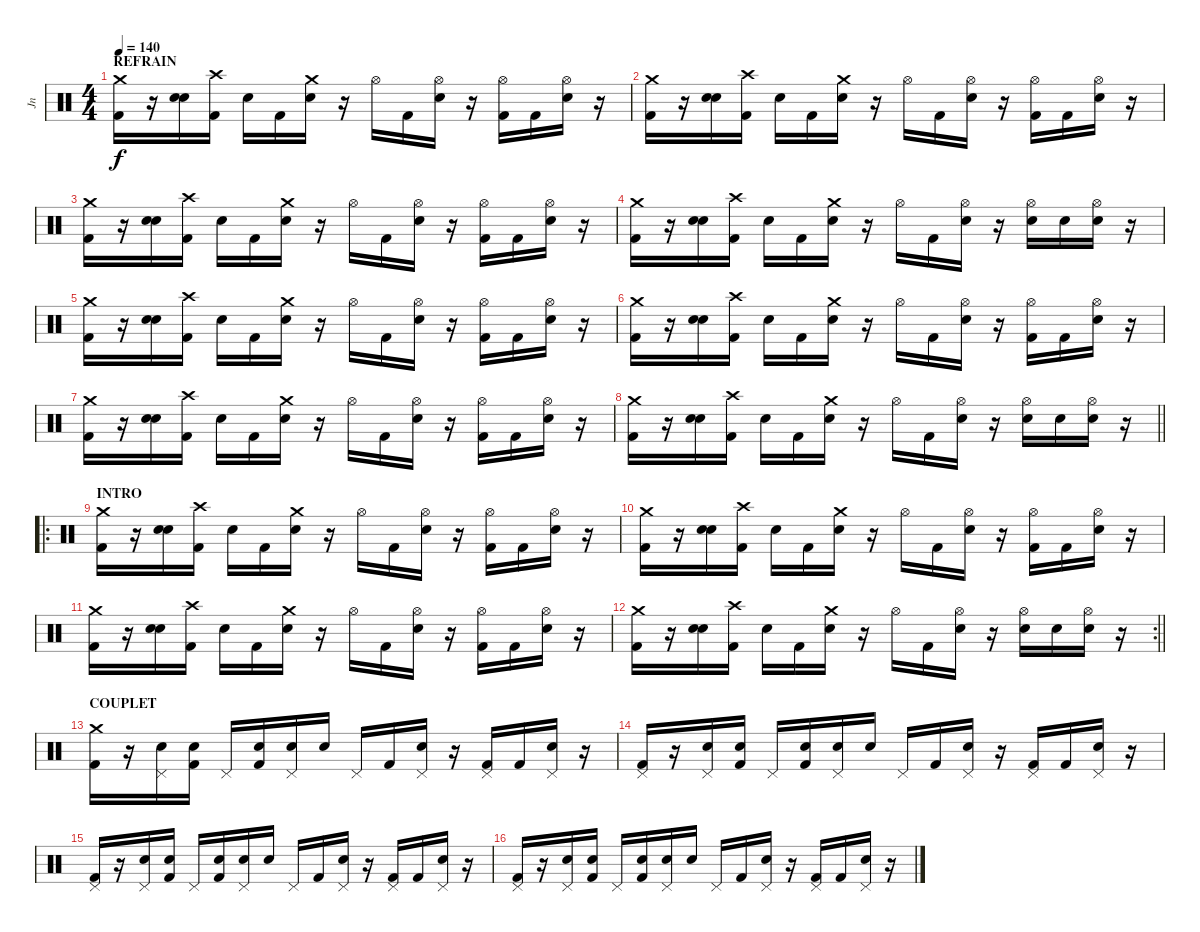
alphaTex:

\track ("Jn" "Jn") {instrument percussion}
\staff {score}
\articulation defaults
\ts (4 4)
\section ("" "REFRAIN")
\tempo 140
\clef neutral
\ks c
("Crash medium (hit)" "Kick (hit) 2").16{dy f} r.16 ("Snare (hit)" "Electric Snare (hit)").16 ("Crash high (hit)" "Kick (hit) 2").16 "Snare (hit)".16 "Kick (hit) 2".16 ("Crash medium (hit)" "Electric Snare (hit)").16 r.16 "Hi-Hat (open)".16 "Kick (hit) 2".16 ("Hi-Hat (open)" "Electric Snare (hit)").16 r.16 ("Hi-Hat (open)" "Kick (hit) 2").16 "Kick (hit) 2".16 ("Hi-Hat (open)" "Electric Snare (hit)").16 r.16 |
("Crash medium (hit)" "Kick (hit) 2").16 r.16 ("Snare (hit)" "Electric Snare (hit)").16 ("Crash high (hit)" "Kick (hit) 2").16 "Snare (hit)".16 "Kick (hit) 2".16 ("Crash medium (hit)" "Electric Snare (hit)").16 r.16 "Hi-Hat (open)".16 "Kick (hit) 2".16 ("Hi-Hat (open)" "Electric Snare (hit)").16 r.16 ("Hi-Hat (open)" "Kick (hit) 2").16 "Kick (hit) 2".16 ("Hi-Hat (open)" "Electric Snare (hit)").16 r.16 |
("Crash medium (hit)" "Kick (hit) 2").16 r.16 ("Snare (hit)" "Electric Snare (hit)").16 ("Crash high (hit)" "Kick (hit) 2").16 "Snare (hit)".16 "Kick (hit) 2".16 ("Crash medium (hit)" "Electric Snare (hit)").16 r.16 "Hi-Hat (open)".16 "Kick (hit) 2".16 ("Hi-Hat (open)" "Electric Snare (hit)").16 r.16 ("Hi-Hat (open)" "Kick (hit) 2").16 "Kick (hit) 2".16 ("Hi-Hat (open)" "Electric Snare (hit)").16 r.16 |
("Crash medium (hit)" "Kick (hit) 2").16 r.16 ("Snare (hit)" "Electric Snare (hit)").16 ("Crash high (hit)" "Kick (hit) 2").16 "Snare (hit)".16 "Kick (hit) 2".16 ("Crash medium (hit)" "Electric Snare (hit)").16 r.16 "Hi-Hat (open)".16 "Kick (hit) 2".16 ("Hi-Hat (open)" "Electric Snare (hit)").16 r.16 ("Hi-Hat (open)" "Electric Snare (hit)").16 "Electric Snare (hit)".16 ("Hi-Hat (open)" "Electric Snare (hit)").16 r.16 |
("Crash medium (hit)" "Kick (hit) 2").16 r.16 ("Snare (hit)" "Electric Snare (hit)").16 ("Crash high (hit)" "Kick (hit) 2").16 "Snare (hit)".16 "Kick (hit) 2".16 ("Crash medium (hit)" "Electric Snare (hit)").16 r.16 "Hi-Hat (open)".16 "Kick (hit) 2".16 ("Hi-Hat (open)" "Electric Snare (hit)").16 r.16 ("Hi-Hat (open)" "Kick (hit) 2").16 "Kick (hit) 2".16 ("Hi-Hat (open)" "Electric Snare (hit)").16 r.16 |
("Crash medium (hit)" "Kick (hit) 2").16 r.16 ("Snare (hit)" "Electric Snare (hit)").16 ("Crash high (hit)" "Kick (hit) 2").16 "Snare (hit)".16 "Kick (hit) 2".16 ("Crash medium (hit)" "Electric Snare (hit)").16 r.16 "Hi-Hat (open)".16 "Kick (hit) 2".16 ("Hi-Hat (open)" "Electric Snare (hit)").16 r.16 ("Hi-Hat (open)" "Kick (hit) 2").16 "Kick (hit) 2".16 ("Hi-Hat (open)" "Electric Snare (hit)").16 r.16 |
("Crash medium (hit)" "Kick (hit) 2").16 r.16 ("Snare (hit)" "Electric Snare (hit)").16 ("Crash high (hit)" "Kick (hit) 2").16 "Snare (hit)".16 "Kick (hit) 2".16 ("Crash medium (hit)" "Electric Snare (hit)").16 r.16 "Hi-Hat (open)".16 "Kick (hit) 2".16 ("Hi-Hat (open)" "Electric Snare (hit)").16 r.16 ("Hi-Hat (open)" "Kick (hit) 2").16 "Kick (hit) 2".16 ("Hi-Hat (open)" "Electric Snare (hit)").16 r.16 |
\barLineRight lightlight
("Crash medium (hit)" "Kick (hit) 2").16 r.16 ("Snare (hit)" "Electric Snare (hit)").16 ("Crash high (hit)" "Kick (hit) 2").16 "Snare (hit)".16 "Kick (hit) 2".16 ("Crash medium (hit)" "Electric Snare (hit)").16 r.16 "Hi-Hat (open)".16 "Kick (hit) 2".16 ("Hi-Hat (open)" "Electric Snare (hit)").16 r.16 ("Hi-Hat (open)" "Electric Snare (hit)").16 "Electric Snare (hit)".16 ("Hi-Hat (open)" "Electric Snare (hit)").16 r.16 |
\ro
\section ("" "INTRO")
("Crash medium (hit)" "Kick (hit) 2").16 r.16 ("Snare (hit)" "Electric Snare (hit)").16 ("Crash high (hit)" "Kick (hit) 2").16 "Snare (hit)".16 "Kick (hit) 2".16 ("Crash medium (hit)" "Electric Snare (hit)").16 r.16 "Hi-Hat (open)".16 "Kick (hit) 2".16 ("Hi-Hat (open)" "Electric Snare (hit)").16 r.16 ("Hi-Hat (open)" "Kick (hit) 2").16 "Kick (hit) 2".16 ("Hi-Hat (open)" "Electric Snare (hit)").16 r.16 |
("Crash medium (hit)" "Kick (hit) 2").16 r.16 ("Snare (hit)" "Electric Snare (hit)").16 ("Crash high (hit)" "Kick (hit) 2").16 "Snare (hit)".16 "Kick (hit) 2".16 ("Crash medium (hit)" "Electric Snare (hit)").16 r.16 "Hi-Hat (open)".16 "Kick (hit) 2".16 ("Hi-Hat (open)" "Electric Snare (hit)").16 r.16 ("Hi-Hat (open)" "Kick (hit) 2").16 "Kick (hit) 2".16 ("Hi-Hat (open)" "Electric Snare (hit)").16 r.16 |
("Crash medium (hit)" "Kick (hit) 2").16 r.16 ("Snare (hit)" "Electric Snare (hit)").16 ("Crash high (hit)" "Kick (hit) 2").16 "Snare (hit)".16 "Kick (hit) 2".16 ("Crash medium (hit)" "Electric Snare (hit)").16 r.16 "Hi-Hat (open)".16 "Kick (hit) 2".16 ("Hi-Hat (open)" "Electric Snare (hit)").16 r.16 ("Hi-Hat (open)" "Kick (hit) 2").16 "Kick (hit) 2".16 ("Hi-Hat (open)" "Electric Snare (hit)").16 r.16 |
\rc 2
\barLineRight lightlight
("Crash medium (hit)" "Kick (hit) 2").16 r.16 ("Snare (hit)" "Electric Snare (hit)").16 ("Crash high (hit)" "Kick (hit) 2").16 "Snare (hit)".16 "Kick (hit) 2".16 ("Crash medium (hit)" "Electric Snare (hit)").16 r.16 "Hi-Hat (open)".16 "Kick (hit) 2".16 ("Hi-Hat (open)" "Electric Snare (hit)").16 r.16 ("Hi-Hat (open)" "Electric Snare (hit)").16 "Electric Snare (hit)".16 ("Hi-Hat (open)" "Electric Snare (hit)").16 r.16 |
\section ("" "COUPLET")
("Crash medium (hit)" "Kick (hit) 2").16 r.16 ("Pedal Hi-Hat (hit)" "Electric Snare (hit)").16 ("Snare (hit)" "Kick (hit) 2").16 "Pedal Hi-Hat (hit)".16 ("Snare (hit)" "Kick (hit) 2").16 ("Pedal Hi-Hat (hit)" "Electric Snare (hit)").16 "Snare (hit)".16 "Pedal Hi-Hat (hit)".16 "Kick (hit) 2".16 ("Pedal Hi-Hat (hit)" "Electric Snare (hit)").16 r.16 ("Pedal Hi-Hat (hit)" "Kick (hit) 2").16 "Kick (hit) 2".16 ("Pedal Hi-Hat (hit)" "Electric Snare (hit)").16 r.16 |
("Pedal Hi-Hat (hit)" "Kick (hit) 2").16 r.16 ("Pedal Hi-Hat (hit)" "Electric Snare (hit)").16 ("Snare (hit)" "Kick (hit) 2").16 "Pedal Hi-Hat (hit)".16 ("Snare (hit)" "Kick (hit) 2").16 ("Pedal Hi-Hat (hit)" "Electric Snare (hit)").16 "Snare (hit)".16 "Pedal Hi-Hat (hit)".16 "Kick (hit) 2".16 ("Pedal Hi-Hat (hit)" "Electric Snare (hit)").16 r.16 ("Pedal Hi-Hat (hit)" "Kick (hit) 2").16 "Kick (hit) 2".16 ("Pedal Hi-Hat (hit)" "Electric Snare (hit)").16 r.16 |
("Pedal Hi-Hat (hit)" "Kick (hit) 2").16 r.16 ("Pedal Hi-Hat (hit)" "Electric Snare (hit)").16 ("Snare (hit)" "Kick (hit) 2").16 "Pedal Hi-Hat (hit)".16 ("Snare (hit)" "Kick (hit) 2").16 ("Pedal Hi-Hat (hit)" "Electric Snare (hit)").16 "Snare (hit)".16 "Pedal Hi-Hat (hit)".16 "Kick (hit) 2".16 ("Pedal Hi-Hat (hit)" "Electric Snare (hit)").16 r.16 ("Pedal Hi-Hat (hit)" "Kick (hit) 2").16 "Kick (hit) 2".16 ("Pedal Hi-Hat (hit)" "Electric Snare (hit)").16 r.16 |
("Pedal Hi-Hat (hit)" "Kick (hit) 2").16 r.16 ("Pedal Hi-Hat (hit)" "Electric Snare (hit)").16 ("Snare (hit)" "Kick (hit) 2").16 "Pedal Hi-Hat (hit)".16 ("Snare (hit)" "Kick (hit) 2").16 ("Pedal Hi-Hat (hit)" "Electric Snare (hit)").16 "Snare (hit)".16 "Pedal Hi-Hat (hit)".16 "Kick (hit) 2".16 ("Pedal Hi-Hat (hit)" "Electric Snare (hit)").16 r.16 ("Pedal Hi-Hat (hit)" "Kick (hit) 2").16 "Kick (hit) 2".16 ("Pedal Hi-Hat (hit)" "Electric Snare (hit)").16 r.16
